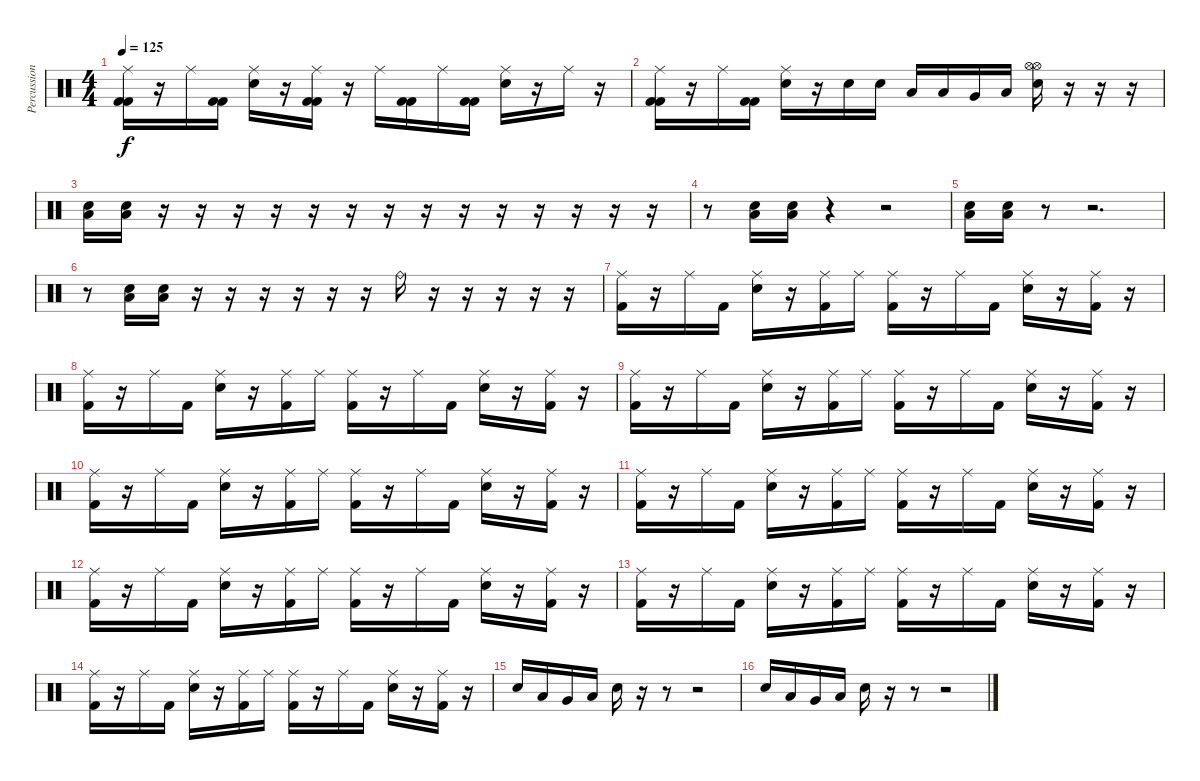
\track ("Percussion" "Percussion") {instrument percussion}
\staff {score}
\articulation defaults
\ts (4 4)
\tempo 125
\clef neutral
\ks c
("Ride (middle)" "Kick (hit) 2" "Kick (hit) 2").16{dy f} r.16 "Ride (middle)".16 ("Kick (hit) 2" "Kick (hit) 2").16 ("Ride (middle)" "Electric Snare (hit)").16 r.16 ("Ride (middle)" "Kick (hit) 2" "Kick (hit) 2").16 r.16 "Ride (middle)".16 ("Kick (hit) 2" "Kick (hit) 2").16 "Ride (middle)".16 ("Kick (hit) 2" "Kick (hit) 2").16 ("Ride (middle)" "Electric Snare (hit)").16 r.16 "Ride (middle)".16 r.16 |
("Ride (middle)" "Kick (hit) 2" "Kick (hit) 2").16 r.16 "Ride (middle)".16 ("Kick (hit) 2" "Kick (hit) 2").16 ("Ride (middle)" "Electric Snare (hit)").16 r.16 "Electric Snare (hit)".16 "Electric Snare (hit)".16 "Low Tom (hit)".16 "Low Tom (hit)".16 "Very Low Tom (hit)".16 "Low Floor Tom (hit)".16 ("Hi-Hat (open)" "Hi-Hat (open)" "Electric Snare (hit)").16 r.16 r.16 r.16 |
("Electric Snare (hit)" "Low Floor Tom (hit)").16 ("Electric Snare (hit)" "Low Floor Tom (hit)").16 r.16 r.16 r.16 r.16 r.16 r.16 r.16 r.16 r.16 r.16 r.16 r.16 r.16 r.16 |
r.8 ("Low Floor Tom (hit)" "Electric Snare (hit)").16 ("Low Floor Tom (hit)" "Electric Snare (hit)").16 r.4 r.2 |
("Electric Snare (hit)" "Low Floor Tom (hit)").16 ("Electric Snare (hit)" "Low Floor Tom (hit)").16 r.8 r.2{d} |
r.8 ("Low Floor Tom (hit)" "Electric Snare (hit)").16 ("Low Floor Tom (hit)" "Electric Snare (hit)").16 r.16 r.16 r.16 r.16 r.16 r.16 "Ride (bell)".16 r.16 r.16 r.16 r.16 r.16 |
("Ride (middle)" "Kick (hit) 2").16 r.16 "Ride (middle)".16 "Kick (hit) 2".16 ("Ride (middle)" "Electric Snare (hit)").16 r.16 ("Ride (middle)" "Kick (hit) 2").16 "Ride (middle)".16 ("Ride (middle)" "Kick (hit) 2").16 r.16 "Ride (middle)".16 "Kick (hit) 2".16 ("Ride (middle)" "Electric Snare (hit)").16 r.16 ("Ride (middle)" "Kick (hit) 2").16 r.16 |
("Ride (middle)" "Kick (hit) 2").16 r.16 "Ride (middle)".16 "Kick (hit) 2".16 ("Ride (middle)" "Electric Snare (hit)").16 r.16 ("Ride (middle)" "Kick (hit) 2").16 "Ride (middle)".16 ("Ride (middle)" "Kick (hit) 2").16 r.16 "Ride (middle)".16 "Kick (hit) 2".16 ("Ride (middle)" "Electric Snare (hit)").16 r.16 ("Ride (middle)" "Kick (hit) 2").16 r.16 |
("Ride (middle)" "Kick (hit) 2").16 r.16 "Ride (middle)".16 "Kick (hit) 2".16 ("Ride (middle)" "Electric Snare (hit)").16 r.16 ("Ride (middle)" "Kick (hit) 2").16 "Ride (middle)".16 ("Ride (middle)" "Kick (hit) 2").16 r.16 "Ride (middle)".16 "Kick (hit) 2".16 ("Ride (middle)" "Electric Snare (hit)").16 r.16 ("Ride (middle)" "Kick (hit) 2").16 r.16 |
("Ride (middle)" "Kick (hit) 2").16 r.16 "Ride (middle)".16 "Kick (hit) 2".16 ("Ride (middle)" "Electric Snare (hit)").16 r.16 ("Ride (middle)" "Kick (hit) 2").16 "Ride (middle)".16 ("Ride (middle)" "Kick (hit) 2").16 r.16 "Ride (middle)".16 "Kick (hit) 2".16 ("Ride (middle)" "Electric Snare (hit)").16 r.16 ("Ride (middle)" "Kick (hit) 2").16 r.16 |
("Ride (middle)" "Kick (hit) 2").16 r.16 "Ride (middle)".16 "Kick (hit) 2".16 ("Ride (middle)" "Electric Snare (hit)").16 r.16 ("Ride (middle)" "Kick (hit) 2").16 "Ride (middle)".16 ("Ride (middle)" "Kick (hit) 2").16 r.16 "Ride (middle)".16 "Kick (hit) 2".16 ("Ride (middle)" "Electric Snare (hit)").16 r.16 ("Ride (middle)" "Kick (hit) 2").16 r.16 |
("Ride (middle)" "Kick (hit) 2").16 r.16 "Ride (middle)".16 "Kick (hit) 2".16 ("Ride (middle)" "Electric Snare (hit)").16 r.16 ("Ride (middle)" "Kick (hit) 2").16 "Ride (middle)".16 ("Ride (middle)" "Kick (hit) 2").16 r.16 "Ride (middle)".16 "Kick (hit) 2".16 ("Ride (middle)" "Electric Snare (hit)").16 r.16 ("Ride (middle)" "Kick (hit) 2").16 r.16 |
("Ride (middle)" "Kick (hit) 2").16 r.16 "Ride (middle)".16 "Kick (hit) 2".16 ("Ride (middle)" "Electric Snare (hit)").16 r.16 ("Ride (middle)" "Kick (hit) 2").16 "Ride (middle)".16 ("Ride (middle)" "Kick (hit) 2").16 r.16 "Ride (middle)".16 "Kick (hit) 2".16 ("Ride (middle)" "Electric Snare (hit)").16 r.16 ("Ride (middle)" "Kick (hit) 2").16 r.16 |
("Ride (middle)" "Kick (hit) 2").16 r.16 "Ride (middle)".16 "Kick (hit) 2".16 ("Ride (middle)" "Electric Snare (hit)").16 r.16 ("Ride (middle)" "Kick (hit) 2").16 "Ride (middle)".16 ("Ride (middle)" "Kick (hit) 2").16 r.16 "Ride (middle)".16 "Kick (hit) 2".16 ("Ride (middle)" "Electric Snare (hit)").16 r.16 ("Ride (middle)" "Kick (hit) 2").16 r.16 |
"Electric Snare (hit)".16 "Low Tom (hit)".16 "Very Low Tom (hit)".16 "Low Floor Tom (hit)".16 "Electric Snare (hit)".16 r.16 r.8 r.2 |
"Electric Snare (hit)".16 "Low Tom (hit)".16 "Very Low Tom (hit)".16 "Low Floor Tom (hit)".16 "Electric Snare (hit)".16 r.16 r.8 r.2
